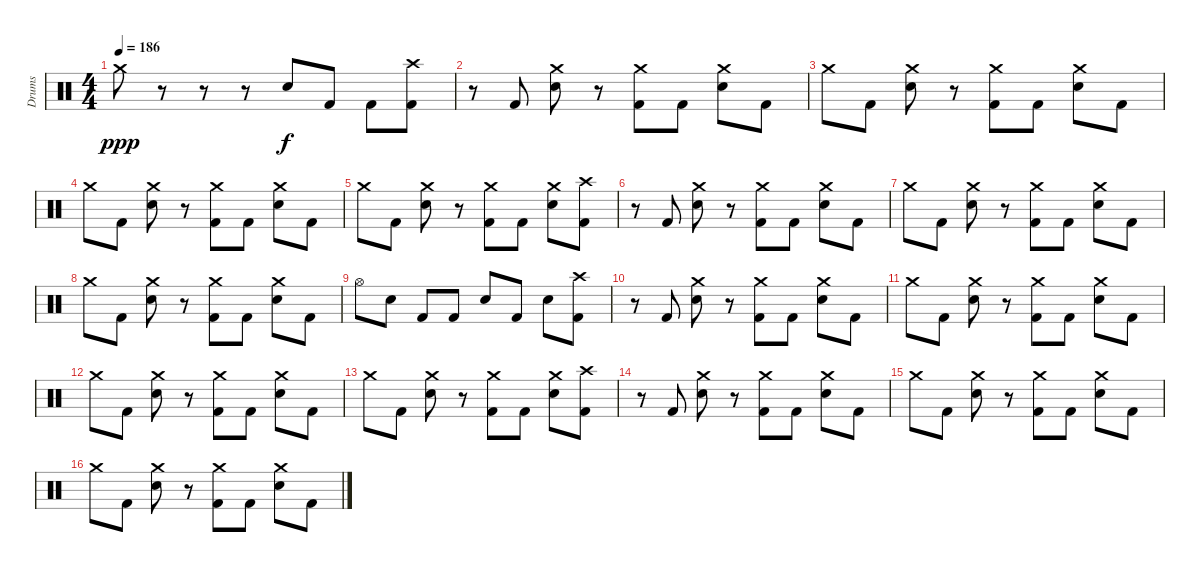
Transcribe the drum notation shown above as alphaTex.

\track ("Drums" "Drums") {instrument percussion}
\staff
\articulation defaults
\ts (4 4)
\tempo 186
\clef neutral
\ks c "Crash medium (hit)".8{dy ppp}
r.8 r.8 r.8 "Electric Snare (hit)".8{dy f} "Kick (hit) 2".8 "Kick (hit) 2".8 ("Crash high (hit)" "Kick (hit) 2").8 |
r.8 "Kick (hit) 2".8 ("Crash medium (hit)" "Electric Snare (hit)").8 r.8 ("Crash medium (hit)" "Kick (hit) 2").8 "Kick (hit) 2".8 ("Crash medium (hit)" "Electric Snare (hit)").8 "Kick (hit) 2".8 |
"Crash medium (hit)".8 "Kick (hit) 2".8 ("Crash medium (hit)" "Electric Snare (hit)").8 r.8 ("Crash medium (hit)" "Kick (hit) 2").8 "Kick (hit) 2".8 ("Crash medium (hit)" "Electric Snare (hit)").8 "Kick (hit) 2".8 |
"Crash medium (hit)".8 "Kick (hit) 2".8 ("Crash medium (hit)" "Electric Snare (hit)").8 r.8 ("Crash medium (hit)" "Kick (hit) 2").8 "Kick (hit) 2".8 ("Crash medium (hit)" "Electric Snare (hit)").8 "Kick (hit) 2".8 |
"Crash medium (hit)".8 "Kick (hit) 2".8 ("Crash medium (hit)" "Electric Snare (hit)").8 r.8 ("Crash medium (hit)" "Kick (hit) 2").8 "Kick (hit) 2".8 ("Crash medium (hit)" "Electric Snare (hit)").8 ("Crash high (hit)" "Kick (hit) 2").8 |
r.8 "Kick (hit) 2".8 ("Crash medium (hit)" "Electric Snare (hit)").8 r.8 ("Crash medium (hit)" "Kick (hit) 2").8 "Kick (hit) 2".8 ("Crash medium (hit)" "Electric Snare (hit)").8 "Kick (hit) 2".8 |
"Crash medium (hit)".8 "Kick (hit) 2".8 ("Crash medium (hit)" "Electric Snare (hit)").8 r.8 ("Crash medium (hit)" "Kick (hit) 2").8 "Kick (hit) 2".8 ("Crash medium (hit)" "Electric Snare (hit)").8 "Kick (hit) 2".8 |
"Crash medium (hit)".8 "Kick (hit) 2".8 ("Crash medium (hit)" "Electric Snare (hit)").8 r.8 ("Crash medium (hit)" "Kick (hit) 2").8 "Kick (hit) 2".8 ("Crash medium (hit)" "Electric Snare (hit)").8 "Kick (hit) 2".8 |
"Hi-Hat (open)".8 "Electric Snare (hit)".8 "Kick (hit) 2".8 "Kick (hit) 2".8 "Electric Snare (hit)".8 "Kick (hit) 2".8 "Electric Snare (hit)".8 ("Crash high (hit)" "Kick (hit) 2").8 |
r.8 "Kick (hit) 2".8 ("Crash medium (hit)" "Electric Snare (hit)").8 r.8 ("Crash medium (hit)" "Kick (hit) 2").8 "Kick (hit) 2".8 ("Crash medium (hit)" "Electric Snare (hit)").8 "Kick (hit) 2".8 |
"Crash medium (hit)".8 "Kick (hit) 2".8 ("Crash medium (hit)" "Electric Snare (hit)").8 r.8 ("Crash medium (hit)" "Kick (hit) 2").8 "Kick (hit) 2".8 ("Crash medium (hit)" "Electric Snare (hit)").8 "Kick (hit) 2".8 |
"Crash medium (hit)".8 "Kick (hit) 2".8 ("Crash medium (hit)" "Electric Snare (hit)").8 r.8 ("Crash medium (hit)" "Kick (hit) 2").8 "Kick (hit) 2".8 ("Crash medium (hit)" "Electric Snare (hit)").8 "Kick (hit) 2".8 |
"Crash medium (hit)".8 "Kick (hit) 2".8 ("Crash medium (hit)" "Electric Snare (hit)").8 r.8 ("Crash medium (hit)" "Kick (hit) 2").8 "Kick (hit) 2".8 ("Crash medium (hit)" "Electric Snare (hit)").8 ("Crash high (hit)" "Kick (hit) 2").8 |
r.8 "Kick (hit) 2".8 ("Crash medium (hit)" "Electric Snare (hit)").8 r.8 ("Crash medium (hit)" "Kick (hit) 2").8 "Kick (hit) 2".8 ("Crash medium (hit)" "Electric Snare (hit)").8 "Kick (hit) 2".8 |
"Crash medium (hit)".8 "Kick (hit) 2".8 ("Crash medium (hit)" "Electric Snare (hit)").8 r.8 ("Crash medium (hit)" "Kick (hit) 2").8 "Kick (hit) 2".8 ("Crash medium (hit)" "Electric Snare (hit)").8 "Kick (hit) 2".8 |
"Crash medium (hit)".8 "Kick (hit) 2".8 ("Crash medium (hit)" "Electric Snare (hit)").8 r.8 ("Crash medium (hit)" "Kick (hit) 2").8 "Kick (hit) 2".8 ("Crash medium (hit)" "Electric Snare (hit)").8 "Kick (hit) 2".8
